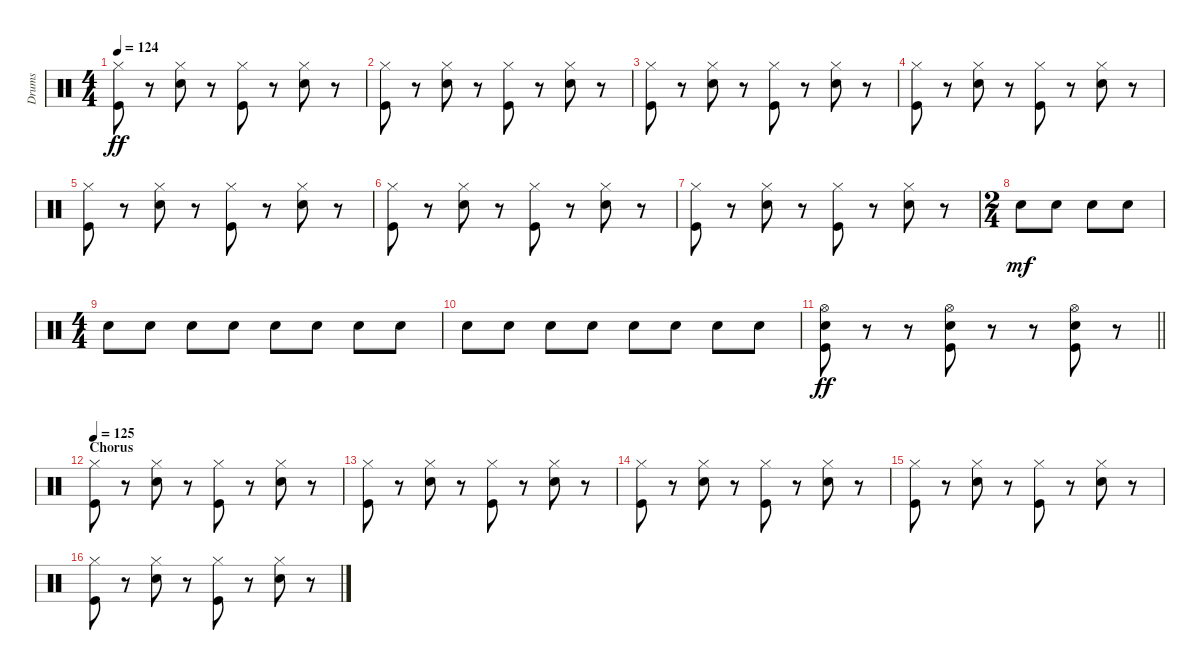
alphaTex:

\track ("Drums" "Drums") {instrument percussion}
\staff {score}
\articulation defaults
\ts (4 4)
\tempo 124
\clef neutral
\ks c
("Hi-Hat (closed)" "Kick (hit)").8{dy ff} r.8 ("Hi-Hat (closed)" "Snare (hit) 2").8 r.8 ("Hi-Hat (closed)" "Kick (hit)").8 r.8 ("Hi-Hat (closed)" "Snare (hit) 2").8 r.8 |
("Hi-Hat (closed)" "Kick (hit)").8 r.8 ("Hi-Hat (closed)" "Snare (hit) 2").8 r.8 ("Hi-Hat (closed)" "Kick (hit)").8 r.8 ("Hi-Hat (closed)" "Snare (hit) 2").8 r.8 |
("Hi-Hat (closed)" "Kick (hit)").8 r.8 ("Hi-Hat (closed)" "Snare (hit) 2").8 r.8 ("Hi-Hat (closed)" "Kick (hit)").8 r.8 ("Hi-Hat (closed)" "Snare (hit) 2").8 r.8 |
("Hi-Hat (closed)" "Kick (hit)").8 r.8 ("Hi-Hat (closed)" "Snare (hit) 2").8 r.8 ("Hi-Hat (closed)" "Kick (hit)").8 r.8 ("Hi-Hat (closed)" "Snare (hit) 2").8 r.8 |
("Hi-Hat (closed)" "Kick (hit)").8 r.8 ("Hi-Hat (closed)" "Snare (hit) 2").8 r.8 ("Hi-Hat (closed)" "Kick (hit)").8 r.8 ("Hi-Hat (closed)" "Snare (hit) 2").8 r.8 |
("Hi-Hat (closed)" "Kick (hit)").8 r.8 ("Hi-Hat (closed)" "Snare (hit) 2").8 r.8 ("Hi-Hat (closed)" "Kick (hit)").8 r.8 ("Hi-Hat (closed)" "Snare (hit) 2").8 r.8 |
("Hi-Hat (closed)" "Kick (hit)").8 r.8 ("Hi-Hat (closed)" "Snare (hit) 2").8 r.8 ("Hi-Hat (closed)" "Kick (hit)").8 r.8 ("Hi-Hat (closed)" "Snare (hit) 2").8 r.8 |
\ts (2 4)
"Snare (hit) 2".8{dy mf} "Snare (hit) 2".8 "Snare (hit) 2".8 "Snare (hit) 2".8 |
\ts (4 4)
"Snare (hit) 2".8 "Snare (hit) 2".8 "Snare (hit) 2".8 "Snare (hit) 2".8 "Snare (hit) 2".8 "Snare (hit) 2".8 "Snare (hit) 2".8 "Snare (hit) 2".8 |
"Snare (hit) 2".8 "Snare (hit) 2".8 "Snare (hit) 2".8 "Snare (hit) 2".8 "Snare (hit) 2".8 "Snare (hit) 2".8 "Snare (hit) 2".8 "Snare (hit) 2".8 |
\barLineRight lightlight
("Hi-Hat (open)" "Snare (hit) 2" "Kick (hit)").8{dy ff} r.8 r.8 ("Hi-Hat (open)" "Snare (hit) 2" "Kick (hit)").8 r.8 r.8 ("Hi-Hat (open)" "Snare (hit) 2" "Kick (hit)").8 r.8 |
\section ("" "Chorus")
\tempo 125
("Hi-Hat (closed)" "Kick (hit)").8 r.8 ("Hi-Hat (closed)" "Snare (hit) 2").8 r.8 ("Hi-Hat (closed)" "Kick (hit)").8 r.8 ("Hi-Hat (closed)" "Snare (hit) 2").8 r.8 |
("Hi-Hat (closed)" "Kick (hit)").8 r.8 ("Hi-Hat (closed)" "Snare (hit) 2").8 r.8 ("Hi-Hat (closed)" "Kick (hit)").8 r.8 ("Hi-Hat (closed)" "Snare (hit) 2").8 r.8 |
("Hi-Hat (closed)" "Kick (hit)").8 r.8 ("Hi-Hat (closed)" "Snare (hit) 2").8 r.8 ("Hi-Hat (closed)" "Kick (hit)").8 r.8 ("Hi-Hat (closed)" "Snare (hit) 2").8 r.8 |
("Hi-Hat (closed)" "Kick (hit)").8 r.8 ("Hi-Hat (closed)" "Snare (hit) 2").8 r.8 ("Hi-Hat (closed)" "Kick (hit)").8 r.8 ("Hi-Hat (closed)" "Snare (hit) 2").8 r.8 |
("Hi-Hat (closed)" "Kick (hit)").8 r.8 ("Hi-Hat (closed)" "Snare (hit) 2").8 r.8 ("Hi-Hat (closed)" "Kick (hit)").8 r.8 ("Hi-Hat (closed)" "Snare (hit) 2").8 r.8
